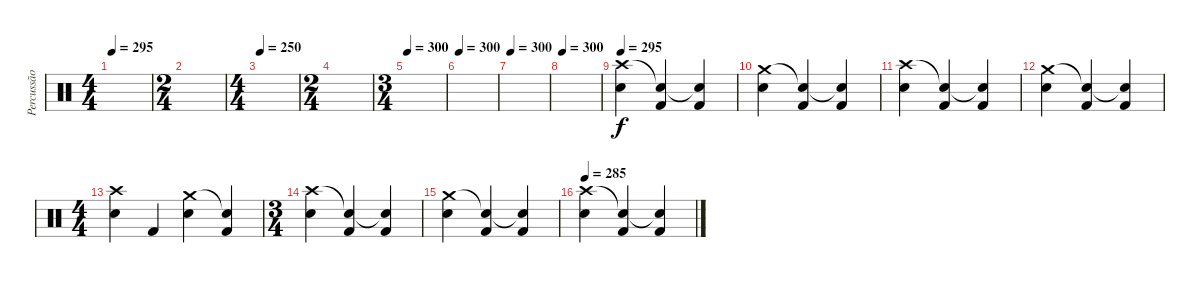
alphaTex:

\track ("Percussão" "Percussão") {instrument percussion}
\staff {score}
\articulation defaults
\ts (4 4)
\tempo 295
\tempo 250
\tempo 295
\clef neutral
\ks c
|
\ts (2 4)
|
\ts (4 4)
\tempo 250
|
\ts (2 4)
|
\ts (3 4)
\tempo 300
|
\tempo 300
|
\tempo 300
|
\tempo 300
|
\tempo 295
("Crash high (hit)" "Electric Snare (hit)").4 ("Snare (hit)"{t} "Kick (hit) 2").4 ("Snare (hit)"{t} "Kick (hit) 2").4 |
("Crash medium (hit)" "Electric Snare (hit)").4 ("Snare (hit)"{t} "Kick (hit) 2").4 ("Snare (hit)"{t} "Kick (hit) 2").4 |
("Crash high (hit)" "Electric Snare (hit)").4 ("Snare (hit)"{t} "Kick (hit) 2").4 ("Snare (hit)"{t} "Kick (hit) 2").4 |
("Crash medium (hit)" "Electric Snare (hit)").4 ("Snare (hit)"{t} "Kick (hit) 2").4 ("Snare (hit)"{t} "Kick (hit) 2").4 |
\ts (4 4)
("Crash high (hit)" "Electric Snare (hit)").4 "Kick (hit) 2".4 ("Crash medium (hit)" "Electric Snare (hit)").4 ("Snare (hit)"{t} "Kick (hit) 2").4 |
\ts (3 4)
("Crash high (hit)" "Electric Snare (hit)").4 ("Snare (hit)"{t} "Kick (hit) 2").4 ("Snare (hit)"{t} "Kick (hit) 2").4 |
("Crash medium (hit)" "Electric Snare (hit)").4 ("Snare (hit)"{t} "Kick (hit) 2").4 ("Snare (hit)"{t} "Kick (hit) 2").4 |
\tempo 285
("Crash high (hit)" "Electric Snare (hit)").4 ("Snare (hit)"{t} "Kick (hit) 2").4 ("Snare (hit)"{t} "Kick (hit) 2").4
